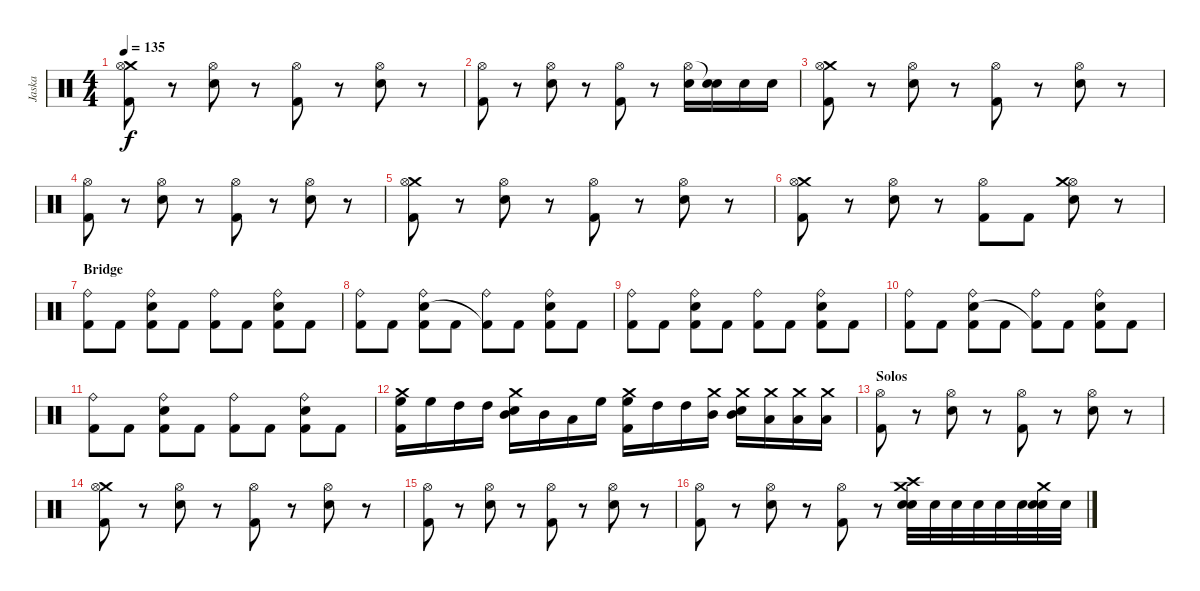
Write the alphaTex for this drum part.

\track ("Jaska" "Jaska") {instrument percussion}
\staff {score}
\articulation defaults
\ts (4 4)
\tempo 135
\clef neutral
\ks c
("Crash medium (hit)" "Hi-Hat (open)" "Kick (hit) 2").8{dy f} r.8 ("Hi-Hat (open)" "Electric Snare (hit)").8 r.8 ("Hi-Hat (open)" "Kick (hit) 2").8 r.8 ("Hi-Hat (open)" "Electric Snare (hit)").8 r.8 |
("Hi-Hat (open)" "Kick (hit) 2").8 r.8 ("Hi-Hat (open)" "Electric Snare (hit)").8 r.8 ("Hi-Hat (open)" "Kick (hit) 2").8 r.8 ("Hi-Hat (open)" "Electric Snare (hit)").16 ("Snare (hit)"{t} "Electric Snare (hit)").16 "Electric Snare (hit)".16 "Electric Snare (hit)".16 |
("Crash medium (hit)" "Hi-Hat (open)" "Kick (hit) 2").8 r.8 ("Hi-Hat (open)" "Electric Snare (hit)").8 r.8 ("Hi-Hat (open)" "Kick (hit) 2").8 r.8 ("Hi-Hat (open)" "Electric Snare (hit)").8 r.8 |
("Hi-Hat (open)" "Kick (hit) 2").8 r.8 ("Hi-Hat (open)" "Electric Snare (hit)").8 r.8 ("Hi-Hat (open)" "Kick (hit) 2").8 r.8 ("Hi-Hat (open)" "Electric Snare (hit)").8 r.8 |
("Crash medium (hit)" "Hi-Hat (open)" "Kick (hit) 2").8 r.8 ("Hi-Hat (open)" "Electric Snare (hit)").8 r.8 ("Hi-Hat (open)" "Kick (hit) 2").8 r.8 ("Hi-Hat (open)" "Electric Snare (hit)").8 r.8 |
("Crash medium (hit)" "Hi-Hat (open)" "Kick (hit) 2").8 r.8 ("Hi-Hat (open)" "Electric Snare (hit)").8 r.8 ("Hi-Hat (open)" "Kick (hit) 2").8 "Kick (hit) 2".8 ("Hi-Hat (open)" "Crash medium (hit)" "Electric Snare (hit)").8 r.8 |
\section ("" "Bridge")
("Ride (bell)" "Kick (hit) 2").8 "Kick (hit) 2".8 ("Ride (bell)" "Snare (hit) 2" "Kick (hit) 2").8 "Kick (hit) 2".8 ("Ride (bell)" "Kick (hit) 2").8 "Kick (hit) 2".8 ("Ride (bell)" "Snare (hit) 2" "Kick (hit) 2").8 "Kick (hit) 2".8 |
("Ride (bell)" "Kick (hit) 2").8 "Kick (hit) 2".8 ("Ride (bell)" "Snare (hit) 2" "Kick (hit) 2").8 "Kick (hit) 2".8 ("Ride (bell)" "Kick (hit) 2"{t}).8 "Kick (hit) 2".8 ("Ride (bell)" "Snare (hit) 2" "Kick (hit) 2").8 "Kick (hit) 2".8 |
("Ride (bell)" "Kick (hit) 2").8 "Kick (hit) 2".8 ("Ride (bell)" "Snare (hit) 2" "Kick (hit) 2").8 "Kick (hit) 2".8 ("Ride (bell)" "Kick (hit) 2").8 "Kick (hit) 2".8 ("Ride (bell)" "Snare (hit) 2" "Kick (hit) 2").8 "Kick (hit) 2".8 |
("Ride (bell)" "Kick (hit) 2").8 "Kick (hit) 2".8 ("Ride (bell)" "Snare (hit) 2" "Kick (hit) 2").8 "Kick (hit) 2".8 ("Ride (bell)" "Kick (hit) 2"{t}).8 "Kick (hit) 2".8 ("Ride (bell)" "Snare (hit) 2" "Kick (hit) 2").8 "Kick (hit) 2".8 |
("Ride (bell)" "Kick (hit) 2").8 "Kick (hit) 2".8 ("Ride (bell)" "Snare (hit) 2" "Kick (hit) 2").8 "Kick (hit) 2".8 ("Ride (bell)" "Kick (hit) 2").8 "Kick (hit) 2".8 ("Ride (bell)" "Snare (hit) 2" "Kick (hit) 2").8 "Kick (hit) 2".8 |
("Crash medium (hit)" "High Floor Tom (hit)" "Kick (hit) 2").16 "High Floor Tom (hit)".16 "High Tom (hit)".16 "High Tom (hit)".16 ("Crash medium (hit)" "Mid Tom (hit)" "Snare (hit) 2").16 "Mid Tom (hit)".16 "Low Tom (hit)".16 "High Floor Tom (hit)".16 ("Crash medium (hit)" "High Floor Tom (hit)" "Kick (hit) 2").16 "High Tom (hit)".16 "High Tom (hit)".16 ("Crash medium (hit)" "Mid Tom (hit)").16 ("Crash medium (hit)" "Mid Tom (hit)" "Snare (hit) 2").16 ("Crash medium (hit)" "Low Tom (hit)").16 ("Crash medium (hit)" "Low Tom (hit)").16 ("Crash medium (hit)" "Low Tom (hit)").16 |
\section ("" "Solos")
("Hi-Hat (open)" "Kick (hit) 2").8 r.8 ("Hi-Hat (open)" "Snare (hit) 2").8 r.8 ("Hi-Hat (open)" "Kick (hit) 2").8 r.8 ("Hi-Hat (open)" "Snare (hit) 2").8 r.8 |
("Crash medium (hit)" "Hi-Hat (open)" "Kick (hit) 2").8 r.8 ("Hi-Hat (open)" "Snare (hit) 2").8 r.8 ("Hi-Hat (open)" "Kick (hit) 2").8 r.8 ("Hi-Hat (open)" "Snare (hit) 2").8 r.8 |
("Hi-Hat (open)" "Kick (hit) 2").8 r.8 ("Hi-Hat (open)" "Snare (hit) 2").8 r.8 ("Hi-Hat (open)" "Kick (hit) 2").8 r.8 ("Hi-Hat (open)" "Snare (hit) 2").8 r.8 |
("Hi-Hat (open)" "Kick (hit) 2").8 r.8 ("Hi-Hat (open)" "Snare (hit) 2").8 r.8 ("Hi-Hat (open)" "Kick (hit) 2").8 r.8 ("Crash high (hit)" "Crash medium (hit)" "Snare (hit) 2" "Snare (hit) 2").32 "Snare (hit) 2".32 "Snare (hit) 2".32 "Snare (hit) 2".32 "Snare (hit) 2".32 "Snare (hit) 2".32 ("Crash medium (hit)" "Snare (hit) 2" "Snare (hit) 2").32 "Snare (hit) 2".32
